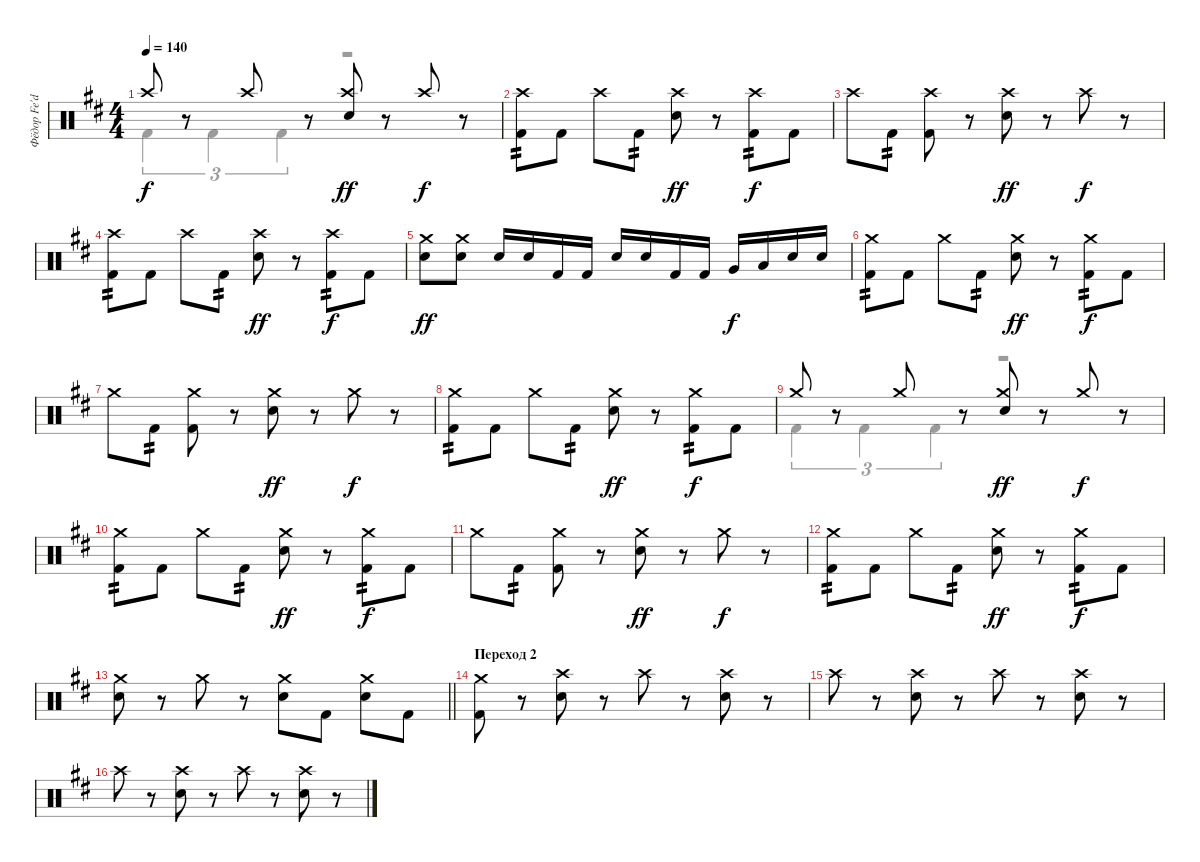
\track ("Фёдор Fe'dor Локшин" "Фёдор Fe'd") {instrument percussion}
\staff {score}
\articulation defaults
\voice
\ts (4 4)
\tempo 140
\clef neutral
\ks bminor "Crash high (hit)".8{dy f}
r.8 "Crash high (hit)".8 r.8 ("Crash high (hit)" "Electric Snare (hit)").8{dy ff} r.8 "Crash high (hit)".8{dy f} r.8 |
("Crash high (hit)" "Kick (hit) 2").8{tp 2} "Kick (hit) 2".8 "Crash high (hit)".8 "Kick (hit) 2".8{tp 2} ("Crash high (hit)" "Electric Snare (hit)").8{dy ff} r.8 ("Crash high (hit)" "Kick (hit) 2").8{tp 2 dy f} "Kick (hit) 2".8 |
"Crash high (hit)".8 "Kick (hit) 2".8{tp 2} ("Crash high (hit)" "Kick (hit) 2").8 r.8 ("Crash high (hit)" "Electric Snare (hit)").8{dy ff} r.8 "Crash high (hit)".8{dy f} r.8 |
("Crash high (hit)" "Kick (hit) 2").8{tp 2} "Kick (hit) 2".8 "Crash high (hit)".8 "Kick (hit) 2".8{tp 2} ("Crash high (hit)" "Electric Snare (hit)").8{dy ff} r.8 ("Crash high (hit)" "Kick (hit) 2").8{tp 2 dy f} "Kick (hit) 2".8 |
("Crash medium (hit)" "Electric Snare (hit)").8{dy ff} ("Crash medium (hit)" "Electric Snare (hit)").8 "Electric Snare (hit)".16 "Electric Snare (hit)".16 "Kick (hit) 2".16 "Kick (hit) 2".16 "Electric Snare (hit)".16 "Electric Snare (hit)".16 "Kick (hit) 2".16 "Kick (hit) 2".16 "Very Low Tom (hit)".16{dy f} "Low Floor Tom (hit)".16 "Electric Snare (hit)".16 "Electric Snare (hit)".16 |
("Crash medium (hit)" "Kick (hit) 2").8{tp 2} "Kick (hit) 2".8 "Crash medium (hit)".8 "Kick (hit) 2".8{tp 2} ("Crash medium (hit)" "Electric Snare (hit)").8{dy ff} r.8 ("Crash medium (hit)" "Kick (hit) 2").8{tp 2 dy f} "Kick (hit) 2".8 |
"Crash medium (hit)".8 "Kick (hit) 2".8{tp 2} ("Crash medium (hit)" "Kick (hit) 2").8 r.8 ("Crash medium (hit)" "Electric Snare (hit)").8{dy ff} r.8 "Crash medium (hit)".8{dy f} r.8 |
("Crash medium (hit)" "Kick (hit) 2").8{tp 2} "Kick (hit) 2".8 "Crash medium (hit)".8 "Kick (hit) 2".8{tp 2} ("Crash medium (hit)" "Electric Snare (hit)").8{dy ff} r.8 ("Crash medium (hit)" "Kick (hit) 2").8{tp 2 dy f} "Kick (hit) 2".8 |
"Crash medium (hit)".8 r.8 "Crash medium (hit)".8 r.8 ("Crash medium (hit)" "Electric Snare (hit)").8{dy ff} r.8 "Crash medium (hit)".8{dy f} r.8 |
("Crash medium (hit)" "Kick (hit) 2").8{tp 2} "Kick (hit) 2".8 "Crash medium (hit)".8 "Kick (hit) 2".8{tp 2} ("Crash medium (hit)" "Electric Snare (hit)").8{dy ff} r.8 ("Crash medium (hit)" "Kick (hit) 2").8{tp 2 dy f} "Kick (hit) 2".8 |
"Crash medium (hit)".8 "Kick (hit) 2".8{tp 2} ("Crash medium (hit)" "Kick (hit) 2").8 r.8 ("Crash medium (hit)" "Electric Snare (hit)").8{dy ff} r.8 "Crash medium (hit)".8{dy f} r.8 |
("Crash medium (hit)" "Kick (hit) 2").8{tp 2} "Kick (hit) 2".8 "Crash medium (hit)".8 "Kick (hit) 2".8{tp 2} ("Crash medium (hit)" "Electric Snare (hit)").8{dy ff} r.8 ("Crash medium (hit)" "Kick (hit) 2").8{tp 2 dy f} "Kick (hit) 2".8 |
\barLineRight lightlight
("Crash medium (hit)" "Snare (hit) 2").8 r.8 "Crash medium (hit)".8 r.8 ("Crash medium (hit)" "Electric Snare (hit)").8 "Kick (hit) 2".8 ("Crash medium (hit)" "Electric Snare (hit)").8 "Kick (hit) 2".8 |
\section ("" "Переход 2")
("Crash medium (hit)" "Kick (hit) 2").8 r.8 ("Crash high (hit)" "Electric Snare (hit)").8 r.8 "Crash high (hit)".8 r.8 ("Crash high (hit)" "Electric Snare (hit)").8 r.8 |
"Crash high (hit)".8 r.8 ("Crash high (hit)" "Electric Snare (hit)").8 r.8 "Crash high (hit)".8 r.8 ("Crash high (hit)" "Electric Snare (hit)").8 r.8 |
"Crash high (hit)".8 r.8 ("Crash high (hit)" "Electric Snare (hit)").8 r.8 "Crash high (hit)".8 r.8 ("Crash high (hit)" "Electric Snare (hit)").8 r.8
\voice
\clef neutral
\ottava regular
\simile none
\ks bminor "Kick (hit) 2".4{tu (3 2) dy f} "Kick (hit) 2".4{tu (3 2)} "Kick (hit) 2".4{tu (3 2)}
r.2 |
|
|
|
|
|
|
|
"Kick (hit) 2".4{tu (3 2)} "Kick (hit) 2".4{tu (3 2)} "Kick (hit) 2".4{tu (3 2)} r.2 |
|
|
|
\barLineRight lightlight
|
|
|
